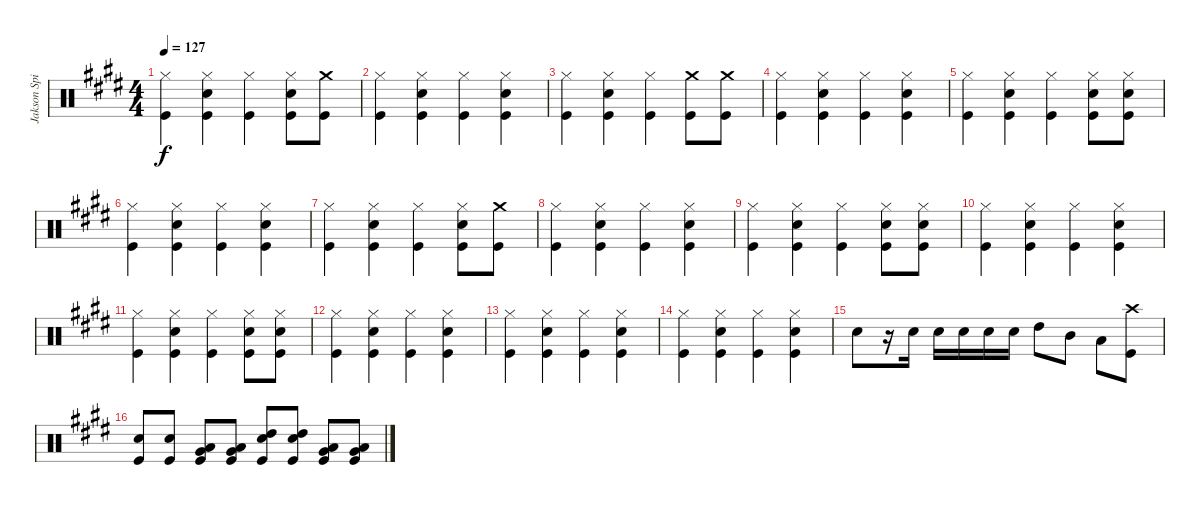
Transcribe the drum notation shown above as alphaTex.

\track ("Jakson Spiers Drums" "Jakson Spi") {instrument percussion}
\staff {score}
\articulation defaults
\ts (4 4)
\tempo 127
\clef neutral
\ks e
("Hi-Hat (closed)" "Kick (hit)").4{dy f} ("Hi-Hat (closed)" "Snare (hit) 2" "Kick (hit)").4 ("Hi-Hat (closed)" "Kick (hit)").4 ("Hi-Hat (closed)" "Snare (hit) 2" "Kick (hit)").8 ("Crash medium (hit)" "Kick (hit)").8 |
("Hi-Hat (closed)" "Kick (hit)").4 ("Hi-Hat (closed)" "Snare (hit) 2" "Kick (hit)").4 ("Hi-Hat (closed)" "Kick (hit)").4 ("Hi-Hat (closed)" "Snare (hit) 2" "Kick (hit)").4 |
("Hi-Hat (closed)" "Kick (hit)").4 ("Hi-Hat (closed)" "Snare (hit) 2" "Kick (hit)").4 ("Hi-Hat (closed)" "Kick (hit)").4 ("Crash medium (hit)" "Kick (hit)").8 ("Crash medium (hit)" "Kick (hit)").8 |
("Hi-Hat (closed)" "Kick (hit)").4 ("Hi-Hat (closed)" "Snare (hit) 2" "Kick (hit)").4 ("Hi-Hat (closed)" "Kick (hit)").4 ("Hi-Hat (closed)" "Snare (hit) 2" "Kick (hit)").4 |
("Hi-Hat (closed)" "Kick (hit)").4 ("Hi-Hat (closed)" "Snare (hit) 2" "Kick (hit)").4 ("Hi-Hat (closed)" "Kick (hit)").4 ("Hi-Hat (closed)" "Snare (hit) 2" "Kick (hit)").8 ("Hi-Hat (closed)" "Snare (hit) 2" "Kick (hit)").8 |
("Hi-Hat (closed)" "Kick (hit)").4 ("Hi-Hat (closed)" "Snare (hit) 2" "Kick (hit)").4 ("Hi-Hat (closed)" "Kick (hit)").4 ("Hi-Hat (closed)" "Snare (hit) 2" "Kick (hit)").4 |
("Hi-Hat (closed)" "Kick (hit)").4 ("Hi-Hat (closed)" "Snare (hit) 2" "Kick (hit)").4 ("Hi-Hat (closed)" "Kick (hit)").4 ("Hi-Hat (closed)" "Snare (hit) 2" "Kick (hit)").8 ("Crash medium (hit)" "Kick (hit)").8 |
("Hi-Hat (closed)" "Kick (hit)").4 ("Hi-Hat (closed)" "Snare (hit) 2" "Kick (hit)").4 ("Hi-Hat (closed)" "Kick (hit)").4 ("Hi-Hat (closed)" "Snare (hit) 2" "Kick (hit)").4 |
("Hi-Hat (closed)" "Kick (hit)").4 ("Hi-Hat (closed)" "Snare (hit) 2" "Kick (hit)").4 ("Hi-Hat (closed)" "Kick (hit)").4 ("Hi-Hat (closed)" "Snare (hit) 2" "Kick (hit)").8 ("Hi-Hat (closed)" "Snare (hit) 2" "Kick (hit)").8 |
("Hi-Hat (closed)" "Kick (hit)").4 ("Hi-Hat (closed)" "Snare (hit) 2" "Kick (hit)").4 ("Hi-Hat (closed)" "Kick (hit)").4 ("Hi-Hat (closed)" "Snare (hit) 2" "Kick (hit)").4 |
("Hi-Hat (closed)" "Kick (hit)").4 ("Hi-Hat (closed)" "Snare (hit) 2" "Kick (hit)").4 ("Hi-Hat (closed)" "Kick (hit)").4 ("Hi-Hat (closed)" "Snare (hit) 2" "Kick (hit)").8 ("Hi-Hat (closed)" "Snare (hit) 2" "Kick (hit)").8 |
("Hi-Hat (closed)" "Kick (hit)").4 ("Hi-Hat (closed)" "Snare (hit) 2" "Kick (hit)").4 ("Hi-Hat (closed)" "Kick (hit)").4 ("Hi-Hat (closed)" "Snare (hit) 2" "Kick (hit)").4 |
("Hi-Hat (closed)" "Kick (hit)").4 ("Hi-Hat (closed)" "Snare (hit) 2" "Kick (hit)").4 ("Hi-Hat (closed)" "Kick (hit)").4 ("Hi-Hat (closed)" "Snare (hit) 2" "Kick (hit)").4 |
("Hi-Hat (closed)" "Kick (hit)").4 ("Hi-Hat (closed)" "Snare (hit) 2" "Kick (hit)").4 ("Hi-Hat (closed)" "Kick (hit)").4 ("Hi-Hat (closed)" "Snare (hit) 2" "Kick (hit)").4 |
"Snare (hit) 2".8 r.16 "Snare (hit) 2".16 "Snare (hit) 2".16 "Snare (hit) 2".16 "Snare (hit) 2".16 "Snare (hit) 2".16 "High Tom (hit)".8 "Mid Tom (hit)".8 "Low Tom (hit)".8 ("Crash high (hit)" "Kick (hit)").8 |
("Snare (hit) 2" "Kick (hit)").8 ("Snare (hit) 2" "Kick (hit)").8 ("Very Low Tom (hit)" "Low Floor Tom (hit)" "Kick (hit)").8 ("Very Low Tom (hit)" "Low Floor Tom (hit)" "Kick (hit)").8 ("High Tom (hit)" "Snare (hit) 2" "Kick (hit)").8 ("High Tom (hit)" "Snare (hit) 2" "Kick (hit)").8 ("Very Low Tom (hit)" "Low Floor Tom (hit)" "Kick (hit)").8 ("Very Low Tom (hit)" "Low Floor Tom (hit)" "Kick (hit)").8
